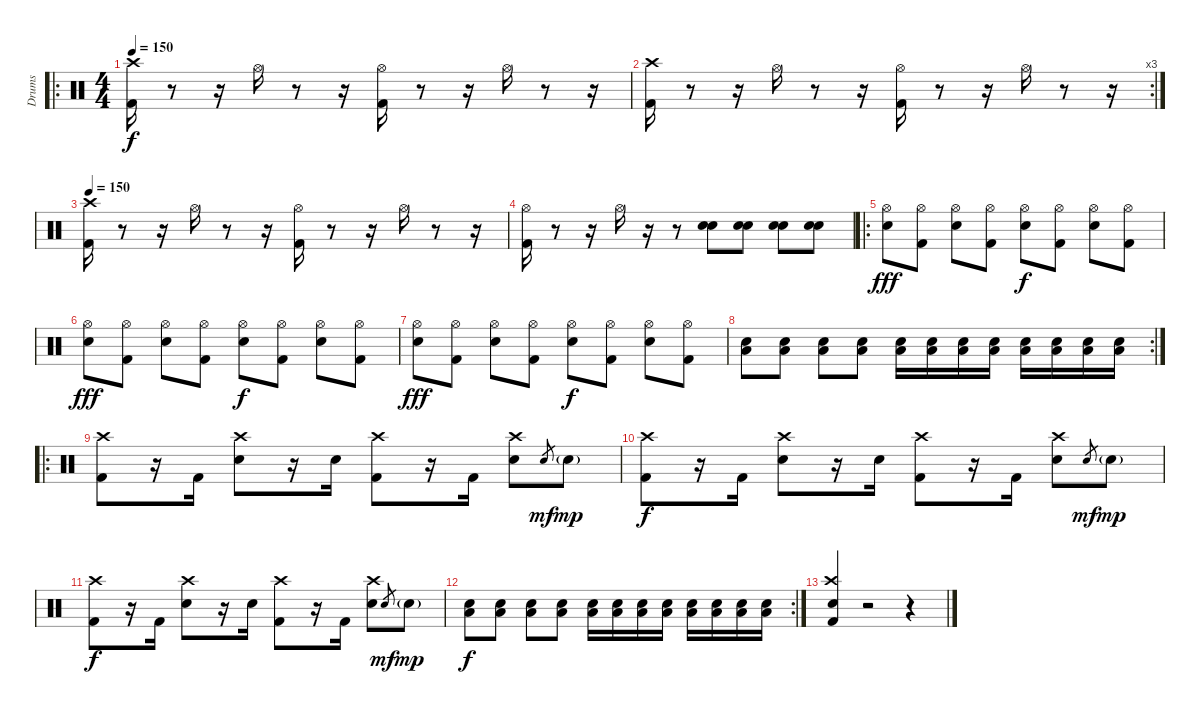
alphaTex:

\track ("Drums" "Drums") {instrument percussion}
\staff {score}
\articulation defaults
\ro
\ts (4 4)
\tempo 150
\clef neutral
\ks c
("Kick (hit) 2" "Crash high (hit)").16{dy f} r.8 r.16 "Hi-Hat (open)".16 r.8 r.16 ("Hi-Hat (open)" "Kick (hit) 2").16 r.8 r.16 "Hi-Hat (open)".16 r.8 r.16 |
\rc 3
("Kick (hit) 2" "Crash high (hit)").16 r.8 r.16 "Hi-Hat (open)".16 r.8 r.16 ("Hi-Hat (open)" "Kick (hit) 2").16 r.8 r.16 "Hi-Hat (open)".16 r.8 r.16 |
\tempo 150
("Kick (hit) 2" "Crash high (hit)").16 r.8 r.16 "Hi-Hat (open)".16 r.8 r.16 ("Hi-Hat (open)" "Kick (hit) 2").16 r.8 r.16 "Hi-Hat (open)".16 r.8 r.16 |
("Kick (hit) 2" "Hi-Hat (open)").16 r.8 r.16 "Hi-Hat (open)".16 r.16 r.8 ("Snare (hit) 2" "Electric Snare (hit)").8 ("Snare (hit) 2" "Electric Snare (hit)").8 ("Snare (hit) 2" "Electric Snare (hit)").8 ("Snare (hit) 2" "Electric Snare (hit)").8 |
\ro
("Hi-Hat (open)" "Snare (hit) 2").8{dy fff} ("Hi-Hat (open)" "Kick (hit) 2").8 ("Hi-Hat (open)" "Snare (hit) 2").8 ("Hi-Hat (open)" "Kick (hit) 2").8 ("Hi-Hat (open)" "Snare (hit) 2").8{dy f} ("Hi-Hat (open)" "Kick (hit) 2").8 ("Hi-Hat (open)" "Snare (hit) 2").8 ("Hi-Hat (open)" "Kick (hit) 2").8 |
("Hi-Hat (open)" "Snare (hit) 2").8{dy fff} ("Hi-Hat (open)" "Kick (hit) 2").8 ("Hi-Hat (open)" "Snare (hit) 2").8 ("Hi-Hat (open)" "Kick (hit) 2").8 ("Hi-Hat (open)" "Snare (hit) 2").8{dy f} ("Hi-Hat (open)" "Kick (hit) 2").8 ("Hi-Hat (open)" "Snare (hit) 2").8 ("Hi-Hat (open)" "Kick (hit) 2").8 |
("Hi-Hat (open)" "Snare (hit) 2").8{dy fff} ("Hi-Hat (open)" "Kick (hit) 2").8 ("Hi-Hat (open)" "Snare (hit) 2").8 ("Hi-Hat (open)" "Kick (hit) 2").8 ("Hi-Hat (open)" "Snare (hit) 2").8{dy f} ("Hi-Hat (open)" "Kick (hit) 2").8 ("Hi-Hat (open)" "Snare (hit) 2").8 ("Hi-Hat (open)" "Kick (hit) 2").8 |
\rc 2
("Low Tom (hit)" "Snare (hit) 2").8 ("Low Tom (hit)" "Snare (hit) 2").8 ("Low Tom (hit)" "Snare (hit) 2").8 ("Low Tom (hit)" "Snare (hit) 2").8 ("Low Tom (hit)" "Snare (hit) 2").16 ("Low Tom (hit)" "Snare (hit) 2").16 ("Low Tom (hit)" "Snare (hit) 2").16 ("Low Tom (hit)" "Snare (hit) 2").16 ("Low Tom (hit)" "Snare (hit) 2").16 ("Low Tom (hit)" "Snare (hit) 2").16 ("Low Tom (hit)" "Snare (hit) 2").16 ("Low Tom (hit)" "Snare (hit) 2").16 |
\ro
("Crash high (hit)" "Kick (hit) 2").8 r.16 "Kick (hit) 2".16 ("Crash high (hit)" "Electric Snare (hit)").8 r.16 "Electric Snare (hit)".16 ("Crash high (hit)" "Kick (hit) 2").8 r.16 "Kick (hit) 2".16 ("Crash high (hit)" "Electric Snare (hit)").8 "Electric Snare (hit)".8{gr dy mf} "Electric Snare (hit)"{g}.8{dy mp} |
("Crash high (hit)" "Kick (hit) 2").8{dy f} r.16 "Kick (hit) 2".16 ("Crash high (hit)" "Electric Snare (hit)").8 r.16 "Electric Snare (hit)".16 ("Crash high (hit)" "Kick (hit) 2").8 r.16 "Kick (hit) 2".16 ("Crash high (hit)" "Electric Snare (hit)").8 "Electric Snare (hit)".8{gr dy mf} "Electric Snare (hit)"{g}.8{dy mp} |
("Crash high (hit)" "Kick (hit) 2").8{dy f} r.16 "Kick (hit) 2".16 ("Crash high (hit)" "Electric Snare (hit)").8 r.16 "Electric Snare (hit)".16 ("Crash high (hit)" "Kick (hit) 2").8 r.16 "Kick (hit) 2".16 ("Crash high (hit)" "Electric Snare (hit)").8 "Electric Snare (hit)".8{gr dy mf} "Electric Snare (hit)"{g}.8{dy mp} |
\rc 2
("Low Tom (hit)" "Snare (hit) 2").8{dy f} ("Low Tom (hit)" "Snare (hit) 2").8 ("Low Tom (hit)" "Snare (hit) 2").8 ("Low Tom (hit)" "Snare (hit) 2").8 ("Low Tom (hit)" "Snare (hit) 2").16 ("Low Tom (hit)" "Snare (hit) 2").16 ("Low Tom (hit)" "Snare (hit) 2").16 ("Low Tom (hit)" "Snare (hit) 2").16 ("Low Tom (hit)" "Snare (hit) 2").16 ("Low Tom (hit)" "Snare (hit) 2").16 ("Low Tom (hit)" "Snare (hit) 2").16 ("Low Tom (hit)" "Snare (hit) 2").16 |
("Electric Snare (hit)" "Kick (hit) 2" "Crash high (hit)").4 r.2 r.4
